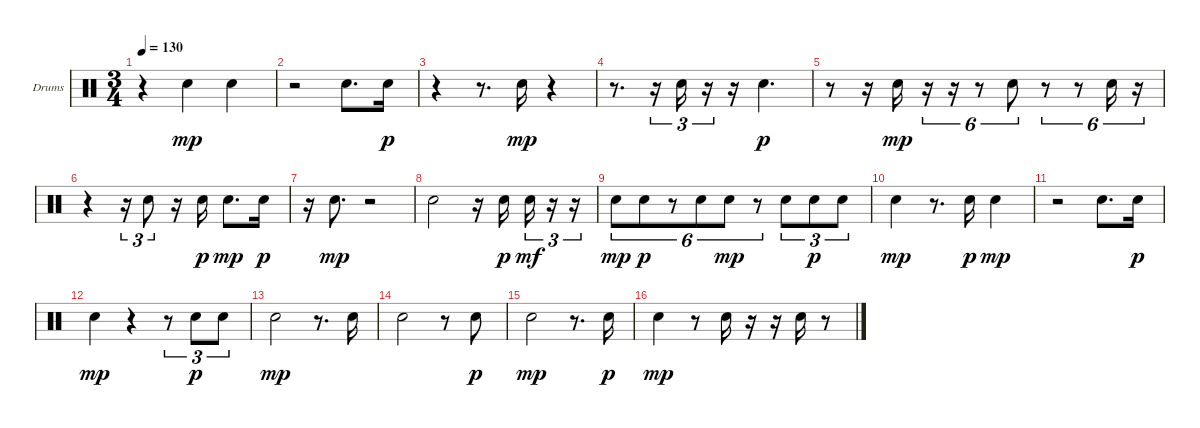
\bracketExtendMode groupsimilarinstruments
\firstSystemTrackNameOrientation horizontal
\otherSystemsTrackNameOrientation horizontal
\track ("Drums" "Drums") {instrument percussion}
\staff {score}
\articulation defaults
\ts (3 4)
\tempo 130
\clef neutral
\ks c
r.4{dy p} "Snare (hit) 2".4{dy mp} "Snare (hit) 2".4 |
r.2 "Snare (hit) 2".8{d} "Snare (hit) 2".16{dy p} |
r.4 r.8{d} "Snare (hit) 2".16{dy mp} r.4 |
r.8{d} r.16{tu (3 2)} "Snare (hit) 2".16{tu (3 2)} r.16{tu (3 2)} r.16 "Snare (hit) 2".4{d dy p} |
r.8 r.16 "Snare (hit) 2".16{dy mp} r.16{tu (6 4)} r.16{tu (6 4)} r.8{tu (6 4)} "Snare (hit) 2".8{tu (6 4)} r.8{tu (6 4)} r.8{tu (6 4)} "Snare (hit) 2".16{tu (6 4)} r.16{tu (6 4)} |
r.4 r.16{tu (3 2)} "Snare (hit) 2".8{tu (3 2)} r.16 "Snare (hit) 2".16{dy p} "Snare (hit) 2".8{d dy mp} "Snare (hit) 2".16{dy p} |
r.16 "Snare (hit) 2".8{d dy mp} r.2 |
"Snare (hit) 2".2 r.16 "Snare (hit) 2".16{dy p} "Snare (hit) 2".16{tu (3 2) dy mf} r.16{tu (3 2)} r.16{tu (3 2)} |
"Snare (hit) 2".8{tu (6 4) dy mp} "Snare (hit) 2".8{tu (6 4) dy p} r.8{tu (6 4)} "Snare (hit) 2".8{tu (6 4)} "Snare (hit) 2".8{tu (6 4) dy mp} r.8{tu (6 4)} "Snare (hit) 2".8{tu (3 2)} "Snare (hit) 2".8{tu (3 2) dy p} "Snare (hit) 2".8{tu (3 2)} |
"Snare (hit) 2".4{dy mp} r.8{d} "Snare (hit) 2".16{dy p} "Snare (hit) 2".4{dy mp} |
r.2 "Snare (hit) 2".8{d} "Snare (hit) 2".16{dy p} |
"Snare (hit) 2".4{dy mp} r.4 r.8{tu (3 2)} "Snare (hit) 2".8{tu (3 2) dy p} "Snare (hit) 2".8{tu (3 2)} |
"Snare (hit) 2".2{dy mp} r.8{d} "Snare (hit) 2".16 |
"Snare (hit) 2".2 r.8 "Snare (hit) 2".8{dy p} |
"Snare (hit) 2".2{dy mp} r.8{d} "Snare (hit) 2".16{dy p} |
"Snare (hit) 2".4{dy mp} r.8 "Snare (hit) 2".16 r.16 r.16 "Snare (hit) 2".16 r.8
